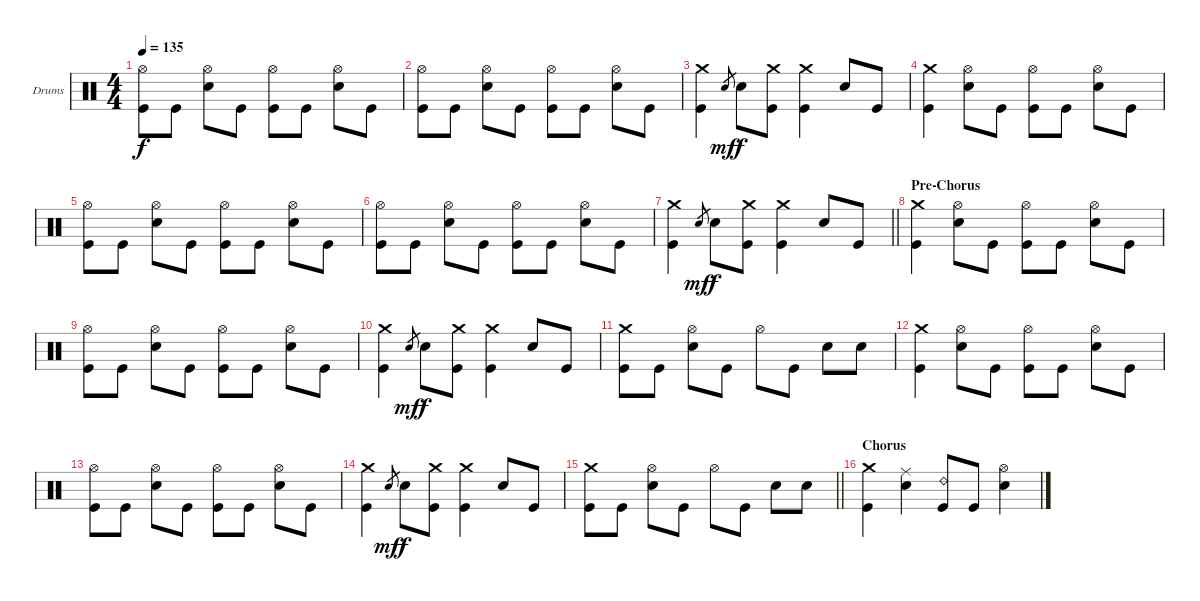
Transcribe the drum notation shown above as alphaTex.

\bracketExtendMode groupsimilarinstruments
\firstSystemTrackNameOrientation horizontal
\otherSystemsTrackNameOrientation horizontal
\track ("Drumkit" "Drums") {multiBarRest instrument percussion}
\staff {score}
\articulation defaults
\ts (4 4)
\tempo 135
\clef neutral
\ks c
("Hi-Hat (open)" "Kick (hit)").8{dy f} "Kick (hit)".8 ("Snare (hit) 2" "Hi-Hat (open)").8 "Kick (hit)".8 ("Hi-Hat (open)" "Kick (hit)").8 "Kick (hit)".8 ("Snare (hit) 2" "Hi-Hat (open)").8 "Kick (hit)".8 |
("Hi-Hat (open)" "Kick (hit)").8 "Kick (hit)".8 ("Snare (hit) 2" "Hi-Hat (open)").8 "Kick (hit)".8 ("Hi-Hat (open)" "Kick (hit)").8 "Kick (hit)".8 ("Snare (hit) 2" "Hi-Hat (open)").8 "Kick (hit)".8 |
("Crash medium (hit)" "Kick (hit)").4 "Snare (hit) 2".8{gr dy mf} "Snare (hit) 2".8{dy f} ("Crash medium (hit)" "Kick (hit)").8 ("Crash medium (hit)" "Kick (hit)").4 "Snare (hit) 2".8 "Kick (hit)".8 |
("Crash medium (hit)" "Kick (hit)").4 ("Snare (hit) 2" "Hi-Hat (open)").8 "Kick (hit)".8 ("Hi-Hat (open)" "Kick (hit)").8 "Kick (hit)".8 ("Snare (hit) 2" "Hi-Hat (open)").8 "Kick (hit)".8 |
("Hi-Hat (open)" "Kick (hit)").8 "Kick (hit)".8 ("Snare (hit) 2" "Hi-Hat (open)").8 "Kick (hit)".8 ("Hi-Hat (open)" "Kick (hit)").8 "Kick (hit)".8 ("Snare (hit) 2" "Hi-Hat (open)").8 "Kick (hit)".8 |
("Hi-Hat (open)" "Kick (hit)").8 "Kick (hit)".8 ("Snare (hit) 2" "Hi-Hat (open)").8 "Kick (hit)".8 ("Hi-Hat (open)" "Kick (hit)").8 "Kick (hit)".8 ("Snare (hit) 2" "Hi-Hat (open)").8 "Kick (hit)".8 |
\barLineRight lightlight
("Crash medium (hit)" "Kick (hit)").4 "Snare (hit) 2".8{gr dy mf} "Snare (hit) 2".8{dy f} ("Crash medium (hit)" "Kick (hit)").8 ("Crash medium (hit)" "Kick (hit)").4 "Snare (hit) 2".8 "Kick (hit)".8 |
\section ("" "Pre-Chorus")
("Crash medium (hit)" "Kick (hit)").4 ("Snare (hit) 2" "Hi-Hat (open)").8 "Kick (hit)".8 ("Hi-Hat (open)" "Kick (hit)").8 "Kick (hit)".8 ("Snare (hit) 2" "Hi-Hat (open)").8 "Kick (hit)".8 |
("Hi-Hat (open)" "Kick (hit)").8 "Kick (hit)".8 ("Snare (hit) 2" "Hi-Hat (open)").8 "Kick (hit)".8 ("Hi-Hat (open)" "Kick (hit)").8 "Kick (hit)".8 ("Snare (hit) 2" "Hi-Hat (open)").8 "Kick (hit)".8 |
("Crash medium (hit)" "Kick (hit)").4 "Snare (hit) 2".8{gr dy mf} "Snare (hit) 2".8{dy f} ("Crash medium (hit)" "Kick (hit)").8 ("Crash medium (hit)" "Kick (hit)").4 "Snare (hit) 2".8 "Kick (hit)".8 |
("Crash medium (hit)" "Kick (hit)").8 "Kick (hit)".8 ("Hi-Hat (open)" "Snare (hit) 2").8 "Kick (hit)".8 "Hi-Hat (open)".8 "Kick (hit)".8 "Snare (hit) 2".8 "Snare (hit) 2".8 |
("Crash medium (hit)" "Kick (hit)").4 ("Snare (hit) 2" "Hi-Hat (open)").8 "Kick (hit)".8 ("Hi-Hat (open)" "Kick (hit)").8 "Kick (hit)".8 ("Snare (hit) 2" "Hi-Hat (open)").8 "Kick (hit)".8 |
("Hi-Hat (open)" "Kick (hit)").8 "Kick (hit)".8 ("Snare (hit) 2" "Hi-Hat (open)").8 "Kick (hit)".8 ("Hi-Hat (open)" "Kick (hit)").8 "Kick (hit)".8 ("Snare (hit) 2" "Hi-Hat (open)").8 "Kick (hit)".8 |
("Crash medium (hit)" "Kick (hit)").4 "Snare (hit) 2".8{gr dy mf} "Snare (hit) 2".8{dy f} ("Crash medium (hit)" "Kick (hit)").8 ("Crash medium (hit)" "Kick (hit)").4 "Snare (hit) 2".8 "Kick (hit)".8 |
\barLineRight lightlight
("Crash medium (hit)" "Kick (hit)").8 "Kick (hit)".8 ("Hi-Hat (open)" "Snare (hit) 2").8 "Kick (hit)".8 "Hi-Hat (open)".8 "Kick (hit)".8 "Snare (hit) 2".8 "Snare (hit) 2".8 |
\section ("" "Chorus")
("Crash medium (hit)" "Kick (hit)").4 ("Ride (middle)" "Snare (hit) 2").4 ("Ride (bell) 2" "Kick (hit)").8 "Kick (hit)".8 ("Hi-Hat (open)" "Snare (hit) 2").4
